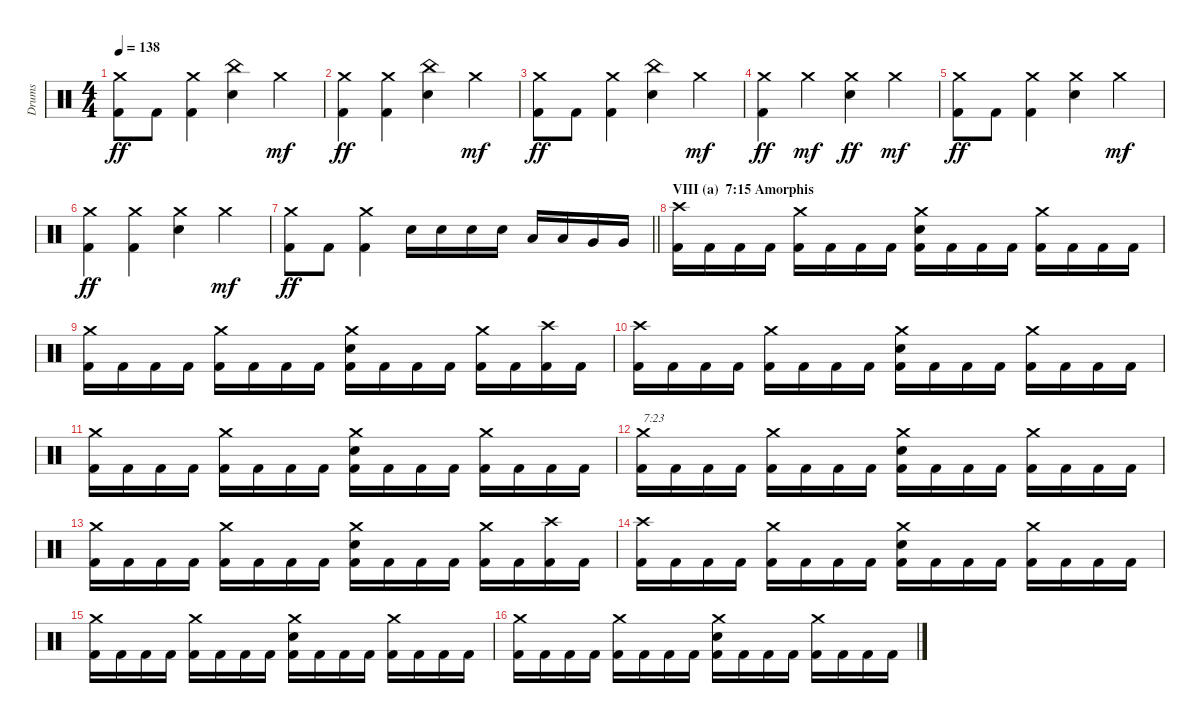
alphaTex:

\track ("Drums" "Drums") {instrument percussion}
\staff {score}
\articulation defaults
\ts (4 4)
\tempo 138
\clef neutral
\ks c
("Crash medium (hit)" "Kick (hit) 2").8{dy ff} "Kick (hit) 2".8 ("Crash medium (hit)" "Kick (hit) 2").4 ("China (hit)" "Electric Snare (hit)").4 "Crash medium (hit)".4{dy mf} |
("Crash medium (hit)" "Kick (hit) 2").4{dy ff} ("Crash medium (hit)" "Kick (hit) 2").4 ("China (hit)" "Electric Snare (hit)").4 "Crash medium (hit)".4{dy mf} |
("Crash medium (hit)" "Kick (hit) 2").8{dy ff} "Kick (hit) 2".8 ("Crash medium (hit)" "Kick (hit) 2").4 ("China (hit)" "Electric Snare (hit)").4 "Crash medium (hit)".4{dy mf} |
("Crash medium (hit)" "Kick (hit) 2").4{dy ff} "Crash medium (hit)".4{dy mf} ("Crash medium (hit)" "Electric Snare (hit)").4{dy ff} "Crash medium (hit)".4{dy mf} |
("Crash medium (hit)" "Kick (hit) 2").8{dy ff} "Kick (hit) 2".8 ("Crash medium (hit)" "Kick (hit) 2").4 ("Crash medium (hit)" "Electric Snare (hit)").4 "Crash medium (hit)".4{dy mf} |
("Crash medium (hit)" "Kick (hit) 2").4{dy ff} ("Crash medium (hit)" "Kick (hit) 2").4 ("Crash medium (hit)" "Electric Snare (hit)").4 "Crash medium (hit)".4{dy mf} |
\barLineRight lightlight
("Crash medium (hit)" "Kick (hit) 2").8{dy ff} "Kick (hit) 2".8 ("Crash medium (hit)" "Kick (hit) 2").4 "Electric Snare (hit)".16 "Electric Snare (hit)".16 "Electric Snare (hit)".16 "Electric Snare (hit)".16 "Low Tom (hit)".16 "Low Tom (hit)".16 "Very Low Tom (hit)".16 "Very Low Tom (hit)".16 |
\section ("" "VIII (a)  7:15 Amorphis")
("Crash high (hit)" "Kick (hit) 2").16 "Kick (hit) 2".16 "Kick (hit) 2".16 "Kick (hit) 2".16 ("Crash medium (hit)" "Kick (hit) 2").16 "Kick (hit) 2".16 "Kick (hit) 2".16 "Kick (hit) 2".16 ("Crash medium (hit)" "Electric Snare (hit)" "Kick (hit) 2").16 "Kick (hit) 2".16 "Kick (hit) 2".16 "Kick (hit) 2".16 ("Crash medium (hit)" "Kick (hit) 2").16 "Kick (hit) 2".16 "Kick (hit) 2".16 "Kick (hit) 2".16 |
("Crash medium (hit)" "Kick (hit) 2").16 "Kick (hit) 2".16 "Kick (hit) 2".16 "Kick (hit) 2".16 ("Crash medium (hit)" "Kick (hit) 2").16 "Kick (hit) 2".16 "Kick (hit) 2".16 "Kick (hit) 2".16 ("Crash medium (hit)" "Electric Snare (hit)" "Kick (hit) 2").16 "Kick (hit) 2".16 "Kick (hit) 2".16 "Kick (hit) 2".16 ("Crash medium (hit)" "Kick (hit) 2").16 "Kick (hit) 2".16 ("Crash high (hit)" "Kick (hit) 2").16 "Kick (hit) 2".16 |
("Crash high (hit)" "Kick (hit) 2").16 "Kick (hit) 2".16 "Kick (hit) 2".16 "Kick (hit) 2".16 ("Crash medium (hit)" "Kick (hit) 2").16 "Kick (hit) 2".16 "Kick (hit) 2".16 "Kick (hit) 2".16 ("Crash medium (hit)" "Electric Snare (hit)" "Kick (hit) 2").16 "Kick (hit) 2".16 "Kick (hit) 2".16 "Kick (hit) 2".16 ("Crash medium (hit)" "Kick (hit) 2").16 "Kick (hit) 2".16 "Kick (hit) 2".16 "Kick (hit) 2".16 |
("Crash medium (hit)" "Kick (hit) 2").16 "Kick (hit) 2".16 "Kick (hit) 2".16 "Kick (hit) 2".16 ("Crash medium (hit)" "Kick (hit) 2").16 "Kick (hit) 2".16 "Kick (hit) 2".16 "Kick (hit) 2".16 ("Crash medium (hit)" "Electric Snare (hit)" "Kick (hit) 2").16 "Kick (hit) 2".16 "Kick (hit) 2".16 "Kick (hit) 2".16 ("Crash medium (hit)" "Kick (hit) 2").16 "Kick (hit) 2".16 "Kick (hit) 2".16 "Kick (hit) 2".16 |
("Crash medium (hit)" "Kick (hit) 2").16{txt "7:23"} "Kick (hit) 2".16 "Kick (hit) 2".16 "Kick (hit) 2".16 ("Crash medium (hit)" "Kick (hit) 2").16 "Kick (hit) 2".16 "Kick (hit) 2".16 "Kick (hit) 2".16 ("Crash medium (hit)" "Electric Snare (hit)" "Kick (hit) 2").16 "Kick (hit) 2".16 "Kick (hit) 2".16 "Kick (hit) 2".16 ("Crash medium (hit)" "Kick (hit) 2").16 "Kick (hit) 2".16 "Kick (hit) 2".16 "Kick (hit) 2".16 |
("Crash medium (hit)" "Kick (hit) 2").16 "Kick (hit) 2".16 "Kick (hit) 2".16 "Kick (hit) 2".16 ("Crash medium (hit)" "Kick (hit) 2").16 "Kick (hit) 2".16 "Kick (hit) 2".16 "Kick (hit) 2".16 ("Crash medium (hit)" "Electric Snare (hit)" "Kick (hit) 2").16 "Kick (hit) 2".16 "Kick (hit) 2".16 "Kick (hit) 2".16 ("Crash medium (hit)" "Kick (hit) 2").16 "Kick (hit) 2".16 ("Crash high (hit)" "Kick (hit) 2").16 "Kick (hit) 2".16 |
("Crash high (hit)" "Kick (hit) 2").16 "Kick (hit) 2".16 "Kick (hit) 2".16 "Kick (hit) 2".16 ("Crash medium (hit)" "Kick (hit) 2").16 "Kick (hit) 2".16 "Kick (hit) 2".16 "Kick (hit) 2".16 ("Crash medium (hit)" "Electric Snare (hit)" "Kick (hit) 2").16 "Kick (hit) 2".16 "Kick (hit) 2".16 "Kick (hit) 2".16 ("Crash medium (hit)" "Kick (hit) 2").16 "Kick (hit) 2".16 "Kick (hit) 2".16 "Kick (hit) 2".16 |
("Crash medium (hit)" "Kick (hit) 2").16 "Kick (hit) 2".16 "Kick (hit) 2".16 "Kick (hit) 2".16 ("Crash medium (hit)" "Kick (hit) 2").16 "Kick (hit) 2".16 "Kick (hit) 2".16 "Kick (hit) 2".16 ("Crash medium (hit)" "Electric Snare (hit)" "Kick (hit) 2").16 "Kick (hit) 2".16 "Kick (hit) 2".16 "Kick (hit) 2".16 ("Crash medium (hit)" "Kick (hit) 2").16 "Kick (hit) 2".16 "Kick (hit) 2".16 "Kick (hit) 2".16 |
("Crash medium (hit)" "Kick (hit) 2").16 "Kick (hit) 2".16 "Kick (hit) 2".16 "Kick (hit) 2".16 ("Crash medium (hit)" "Kick (hit) 2").16 "Kick (hit) 2".16 "Kick (hit) 2".16 "Kick (hit) 2".16 ("Crash medium (hit)" "Electric Snare (hit)" "Kick (hit) 2").16 "Kick (hit) 2".16 "Kick (hit) 2".16 "Kick (hit) 2".16 ("Crash medium (hit)" "Kick (hit) 2").16 "Kick (hit) 2".16 "Kick (hit) 2".16 "Kick (hit) 2".16
